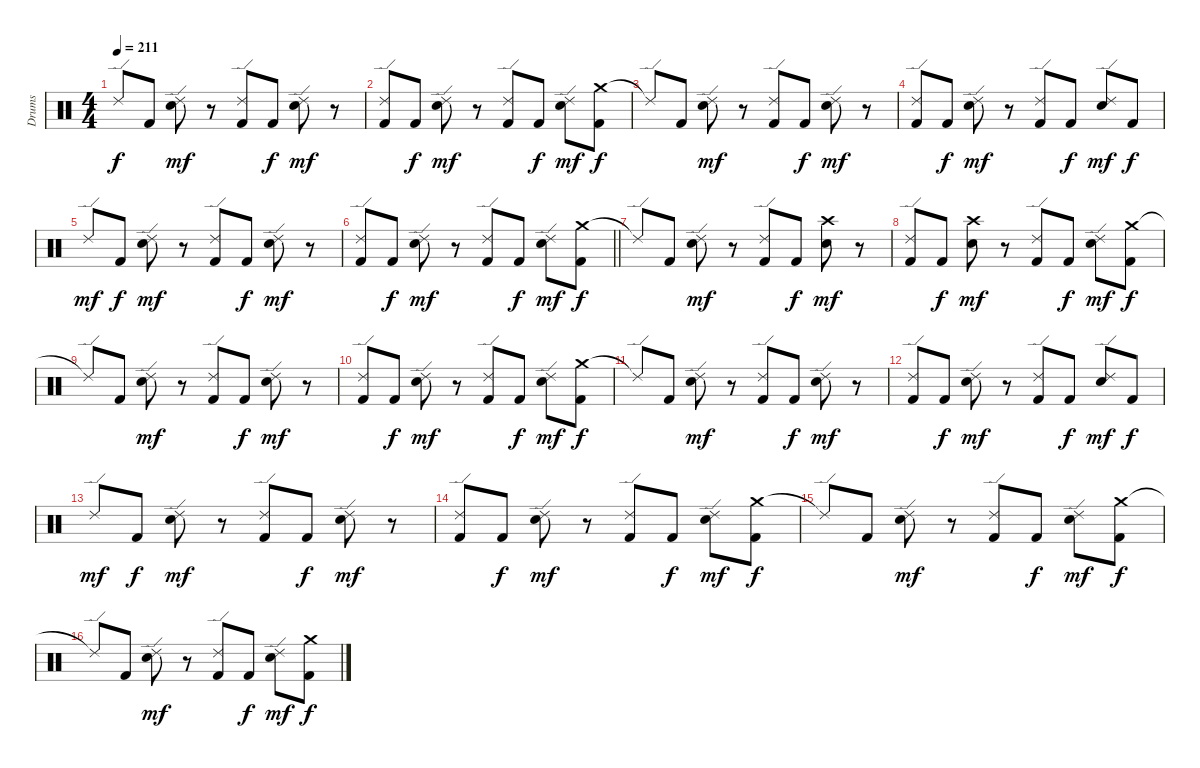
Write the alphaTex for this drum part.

\track ("Drums" "Drums") {instrument percussion}
\staff {score}
\articulation defaults
\ts (4 4)
\tempo 211
\clef neutral
\ks c "Ride (edge) 2"{t}.8{dy f} "Kick (hit) 2".8
("Ride (edge) 2" "Snare (hit) 2").8{dy mf} r.8 ("Ride (edge) 2" "Kick (hit) 2").8 "Kick (hit) 2".8{dy f} ("Ride (edge) 2" "Snare (hit) 2").8{dy mf} r.8 |
("Ride (edge) 2" "Kick (hit) 2").8 "Kick (hit) 2".8{dy f} ("Ride (edge) 2" "Snare (hit) 2").8{dy mf} r.8 ("Ride (edge) 2" "Kick (hit) 2").8 "Kick (hit) 2".8{dy f} ("Ride (edge) 2" "Snare (hit) 2").8{dy mf} ("Crash medium (hit)" "Kick (hit) 2").8{dy f} |
"Ride (edge) 2"{t}.8 "Kick (hit) 2".8 ("Ride (edge) 2" "Snare (hit) 2").8{dy mf} r.8 ("Ride (edge) 2" "Kick (hit) 2").8 "Kick (hit) 2".8{dy f} ("Ride (edge) 2" "Snare (hit) 2").8{dy mf} r.8 |
("Ride (edge) 2" "Kick (hit) 2").8 "Kick (hit) 2".8{dy f} ("Ride (edge) 2" "Snare (hit) 2").8{dy mf} r.8 ("Ride (edge) 2" "Kick (hit) 2").8 "Kick (hit) 2".8{dy f} ("Ride (edge) 2" "Snare (hit) 2").8{dy mf} "Kick (hit) 2".8{dy f} |
"Ride (edge) 2".8{dy mf} "Kick (hit) 2".8{dy f} ("Ride (edge) 2" "Snare (hit) 2").8{dy mf} r.8 ("Ride (edge) 2" "Kick (hit) 2").8 "Kick (hit) 2".8{dy f} ("Ride (edge) 2" "Snare (hit) 2").8{dy mf} r.8 |
\barLineRight lightlight
("Ride (edge) 2" "Kick (hit) 2").8 "Kick (hit) 2".8{dy f} ("Ride (edge) 2" "Snare (hit) 2").8{dy mf} r.8 ("Ride (edge) 2" "Kick (hit) 2").8 "Kick (hit) 2".8{dy f} ("Ride (edge) 2" "Snare (hit) 2").8{dy mf} ("Crash medium (hit)" "Kick (hit) 2").8{dy f} |
"Ride (edge) 2"{t}.8 "Kick (hit) 2".8 ("Ride (edge) 2" "Snare (hit) 2").8{dy mf} r.8 ("Ride (edge) 2" "Kick (hit) 2").8 "Kick (hit) 2".8{dy f} ("Crash high (hit)" "Snare (hit) 2").8{dy mf} r.8 |
("Ride (edge) 2" "Kick (hit) 2").8 "Kick (hit) 2".8{dy f} ("Crash high (hit)" "Snare (hit) 2").8{dy mf} r.8 ("Ride (edge) 2" "Kick (hit) 2").8 "Kick (hit) 2".8{dy f} ("Ride (edge) 2" "Snare (hit) 2").8{dy mf} ("Crash medium (hit)" "Kick (hit) 2").8{dy f} |
"Ride (edge) 2"{t}.8 "Kick (hit) 2".8 ("Ride (edge) 2" "Snare (hit) 2").8{dy mf} r.8 ("Ride (edge) 2" "Kick (hit) 2").8 "Kick (hit) 2".8{dy f} ("Ride (edge) 2" "Snare (hit) 2").8{dy mf} r.8 |
("Ride (edge) 2" "Kick (hit) 2").8 "Kick (hit) 2".8{dy f} ("Ride (edge) 2" "Snare (hit) 2").8{dy mf} r.8 ("Ride (edge) 2" "Kick (hit) 2").8 "Kick (hit) 2".8{dy f} ("Ride (edge) 2" "Snare (hit) 2").8{dy mf} ("Crash medium (hit)" "Kick (hit) 2").8{dy f} |
"Ride (edge) 2"{t}.8 "Kick (hit) 2".8 ("Ride (edge) 2" "Snare (hit) 2").8{dy mf} r.8 ("Ride (edge) 2" "Kick (hit) 2").8 "Kick (hit) 2".8{dy f} ("Ride (edge) 2" "Snare (hit) 2").8{dy mf} r.8 |
("Ride (edge) 2" "Kick (hit) 2").8 "Kick (hit) 2".8{dy f} ("Ride (edge) 2" "Snare (hit) 2").8{dy mf} r.8 ("Ride (edge) 2" "Kick (hit) 2").8 "Kick (hit) 2".8{dy f} ("Ride (edge) 2" "Snare (hit) 2").8{dy mf} "Kick (hit) 2".8{dy f} |
"Ride (edge) 2".8{dy mf} "Kick (hit) 2".8{dy f} ("Ride (edge) 2" "Snare (hit) 2").8{dy mf} r.8 ("Ride (edge) 2" "Kick (hit) 2").8 "Kick (hit) 2".8{dy f} ("Ride (edge) 2" "Snare (hit) 2").8{dy mf} r.8 |
("Ride (edge) 2" "Kick (hit) 2").8 "Kick (hit) 2".8{dy f} ("Ride (edge) 2" "Snare (hit) 2").8{dy mf} r.8 ("Ride (edge) 2" "Kick (hit) 2").8 "Kick (hit) 2".8{dy f} ("Ride (edge) 2" "Snare (hit) 2").8{dy mf} ("Crash medium (hit)" "Kick (hit) 2").8{dy f} |
"Ride (edge) 2"{t}.8 "Kick (hit) 2".8 ("Ride (edge) 2" "Snare (hit) 2").8{dy mf} r.8 ("Ride (edge) 2" "Kick (hit) 2").8 "Kick (hit) 2".8{dy f} ("Ride (edge) 2" "Snare (hit) 2").8{dy mf} ("Crash medium (hit)" "Kick (hit) 2").8{dy f} |
"Ride (edge) 2"{t}.8 "Kick (hit) 2".8 ("Ride (edge) 2" "Snare (hit) 2").8{dy mf} r.8 ("Ride (edge) 2" "Kick (hit) 2").8 "Kick (hit) 2".8{dy f} ("Ride (edge) 2" "Snare (hit) 2").8{dy mf} ("Crash medium (hit)" "Kick (hit) 2").8{dy f}
